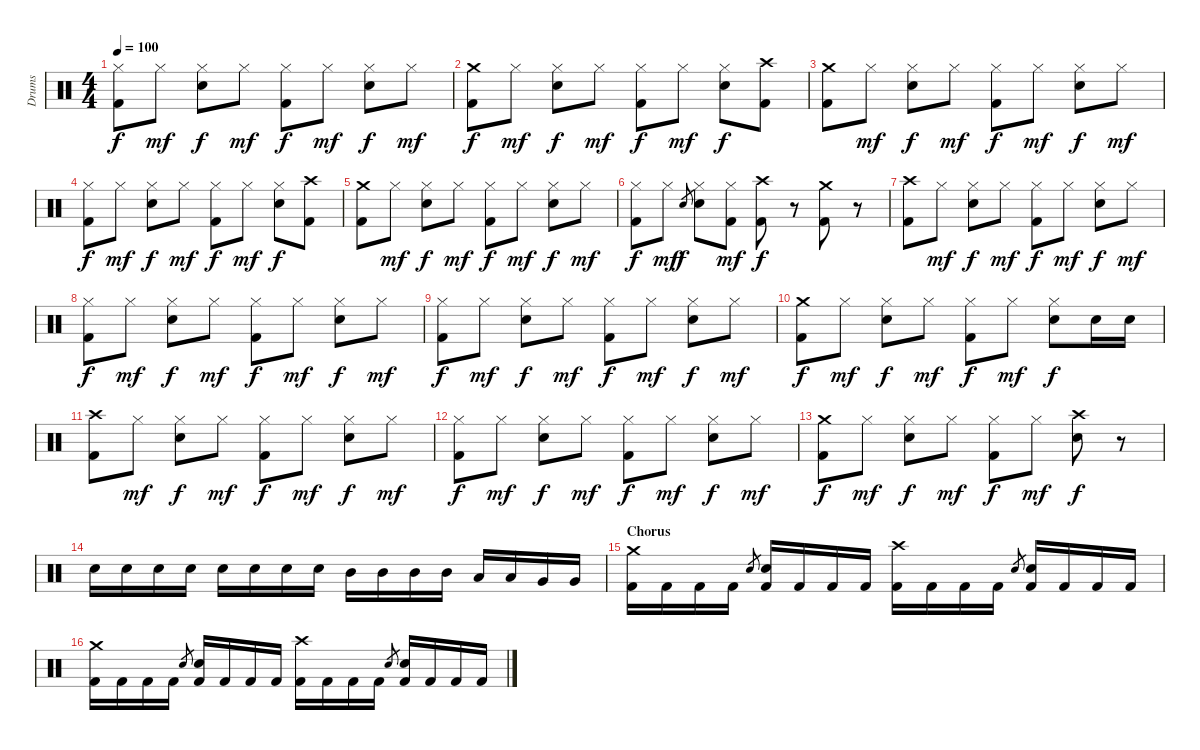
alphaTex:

\track ("Drums" "Drums") {instrument percussion}
\staff {score}
\articulation defaults
\ts (4 4)
\tempo 100
\clef neutral
\ks c
("Hi-Hat (closed)" "Kick (hit) 2").8{dy f} "Hi-Hat (closed)".8{dy mf} ("Hi-Hat (closed)" "Snare (hit) 2").8{dy f} "Hi-Hat (closed)".8{dy mf} ("Hi-Hat (closed)" "Kick (hit) 2").8{dy f} "Hi-Hat (closed)".8{dy mf} ("Hi-Hat (closed)" "Snare (hit) 2").8{dy f} "Hi-Hat (closed)".8{dy mf} |
("Crash medium (hit)" "Kick (hit) 2").8{dy f} "Hi-Hat (closed)".8{dy mf} ("Hi-Hat (closed)" "Snare (hit) 2").8{dy f} "Hi-Hat (closed)".8{dy mf} ("Hi-Hat (closed)" "Kick (hit) 2").8{dy f} "Hi-Hat (closed)".8{dy mf} ("Hi-Hat (closed)" "Snare (hit) 2").8{dy f} ("Crash high (hit)" "Kick (hit) 2").8 |
("Crash medium (hit)" "Kick (hit) 2").8 "Hi-Hat (closed)".8{dy mf} ("Hi-Hat (closed)" "Snare (hit) 2").8{dy f} "Hi-Hat (closed)".8{dy mf} ("Hi-Hat (closed)" "Kick (hit) 2").8{dy f} "Hi-Hat (closed)".8{dy mf} ("Hi-Hat (closed)" "Snare (hit) 2").8{dy f} "Hi-Hat (closed)".8{dy mf} |
("Hi-Hat (closed)" "Kick (hit) 2").8{dy f} "Hi-Hat (closed)".8{dy mf} ("Hi-Hat (closed)" "Snare (hit) 2").8{dy f} "Hi-Hat (closed)".8{dy mf} ("Hi-Hat (closed)" "Kick (hit) 2").8{dy f} "Hi-Hat (closed)".8{dy mf} ("Hi-Hat (closed)" "Snare (hit) 2").8{dy f} ("Crash high (hit)" "Kick (hit) 2").8 |
("Crash medium (hit)" "Kick (hit) 2").8 "Hi-Hat (closed)".8{dy mf} ("Hi-Hat (closed)" "Snare (hit) 2").8{dy f} "Hi-Hat (closed)".8{dy mf} ("Hi-Hat (closed)" "Kick (hit) 2").8{dy f} "Hi-Hat (closed)".8{dy mf} ("Hi-Hat (closed)" "Snare (hit) 2").8{dy f} "Hi-Hat (closed)".8{dy mf} |
("Hi-Hat (closed)" "Kick (hit) 2").8{dy f} "Hi-Hat (closed)".8{dy mf} "Snare (hit) 2".8{gr dy f} ("Hi-Hat (closed)" "Snare (hit) 2").8 ("Hi-Hat (closed)" "Kick (hit) 2").8{dy mf} ("Crash high (hit)" "Kick (hit) 2").8{dy f} r.8 ("Crash medium (hit)" "Kick (hit) 2").8 r.8 |
("Crash high (hit)" "Kick (hit) 2").8 "Hi-Hat (closed)".8{dy mf} ("Hi-Hat (closed)" "Snare (hit) 2").8{dy f} "Hi-Hat (closed)".8{dy mf} ("Hi-Hat (closed)" "Kick (hit) 2").8{dy f} "Hi-Hat (closed)".8{dy mf} ("Hi-Hat (closed)" "Snare (hit) 2").8{dy f} "Hi-Hat (closed)".8{dy mf} |
("Hi-Hat (closed)" "Kick (hit) 2").8{dy f} "Hi-Hat (closed)".8{dy mf} ("Hi-Hat (closed)" "Snare (hit) 2").8{dy f} "Hi-Hat (closed)".8{dy mf} ("Hi-Hat (closed)" "Kick (hit) 2").8{dy f} "Hi-Hat (closed)".8{dy mf} ("Hi-Hat (closed)" "Snare (hit) 2").8{dy f} "Hi-Hat (closed)".8{dy mf} |
("Hi-Hat (closed)" "Kick (hit) 2").8{dy f} "Hi-Hat (closed)".8{dy mf} ("Hi-Hat (closed)" "Snare (hit) 2").8{dy f} "Hi-Hat (closed)".8{dy mf} ("Hi-Hat (closed)" "Kick (hit) 2").8{dy f} "Hi-Hat (closed)".8{dy mf} ("Hi-Hat (closed)" "Snare (hit) 2").8{dy f} "Hi-Hat (closed)".8{dy mf} |
("Crash medium (hit)" "Kick (hit) 2").8{dy f} "Hi-Hat (closed)".8{dy mf} ("Hi-Hat (closed)" "Snare (hit) 2").8{dy f} "Hi-Hat (closed)".8{dy mf} ("Hi-Hat (closed)" "Kick (hit) 2").8{dy f} "Hi-Hat (closed)".8{dy mf} ("Hi-Hat (closed)" "Snare (hit) 2").8{dy f} "Snare (hit) 2".16 "Snare (hit) 2".16 |
("Crash high (hit)" "Kick (hit) 2").8 "Hi-Hat (closed)".8{dy mf} ("Hi-Hat (closed)" "Snare (hit) 2").8{dy f} "Hi-Hat (closed)".8{dy mf} ("Hi-Hat (closed)" "Kick (hit) 2").8{dy f} "Hi-Hat (closed)".8{dy mf} ("Hi-Hat (closed)" "Snare (hit) 2").8{dy f} "Hi-Hat (closed)".8{dy mf} |
("Hi-Hat (closed)" "Kick (hit) 2").8{dy f} "Hi-Hat (closed)".8{dy mf} ("Hi-Hat (closed)" "Snare (hit) 2").8{dy f} "Hi-Hat (closed)".8{dy mf} ("Hi-Hat (closed)" "Kick (hit) 2").8{dy f} "Hi-Hat (closed)".8{dy mf} ("Hi-Hat (closed)" "Snare (hit) 2").8{dy f} "Hi-Hat (closed)".8{dy mf} |
("Crash medium (hit)" "Kick (hit) 2").8{dy f} "Hi-Hat (closed)".8{dy mf} ("Hi-Hat (closed)" "Snare (hit) 2").8{dy f} "Hi-Hat (closed)".8{dy mf} ("Hi-Hat (closed)" "Kick (hit) 2").8{dy f} "Hi-Hat (closed)".8{dy mf} ("Crash high (hit)" "Snare (hit) 2").8{dy f} r.8 |
"Snare (hit) 2".16 "Snare (hit) 2".16 "Snare (hit) 2".16 "Snare (hit) 2".16 "Snare (hit) 2".16 "Snare (hit) 2".16 "Snare (hit) 2".16 "Snare (hit) 2".16 "Mid Tom (hit)".16 "Mid Tom (hit)".16 "Mid Tom (hit)".16 "Mid Tom (hit)".16 "Low Tom (hit)".16 "Low Tom (hit)".16 "Very Low Tom (hit)".16 "Very Low Tom (hit)".16 |
\section ("" "Chorus")
("Crash medium (hit)" "Kick (hit) 2").16 "Kick (hit) 2".16 "Kick (hit) 2".16 "Kick (hit) 2".16 "Snare (hit) 2".8{gr} ("Snare (hit) 2" "Kick (hit) 2").16 "Kick (hit) 2".16 "Kick (hit) 2".16 "Kick (hit) 2".16 ("Crash high (hit)" "Kick (hit) 2").16 "Kick (hit) 2".16 "Kick (hit) 2".16 "Kick (hit) 2".16 "Snare (hit) 2".8{gr} ("Snare (hit) 2" "Kick (hit) 2").16 "Kick (hit) 2".16 "Kick (hit) 2".16 "Kick (hit) 2".16 |
("Crash medium (hit)" "Kick (hit) 2").16 "Kick (hit) 2".16 "Kick (hit) 2".16 "Kick (hit) 2".16 "Snare (hit) 2".8{gr} ("Snare (hit) 2" "Kick (hit) 2").16 "Kick (hit) 2".16 "Kick (hit) 2".16 "Kick (hit) 2".16 ("Crash high (hit)" "Kick (hit) 2").16 "Kick (hit) 2".16 "Kick (hit) 2".16 "Kick (hit) 2".16 "Snare (hit) 2".8{gr} ("Snare (hit) 2" "Kick (hit) 2").16 "Kick (hit) 2".16 "Kick (hit) 2".16 "Kick (hit) 2".16
